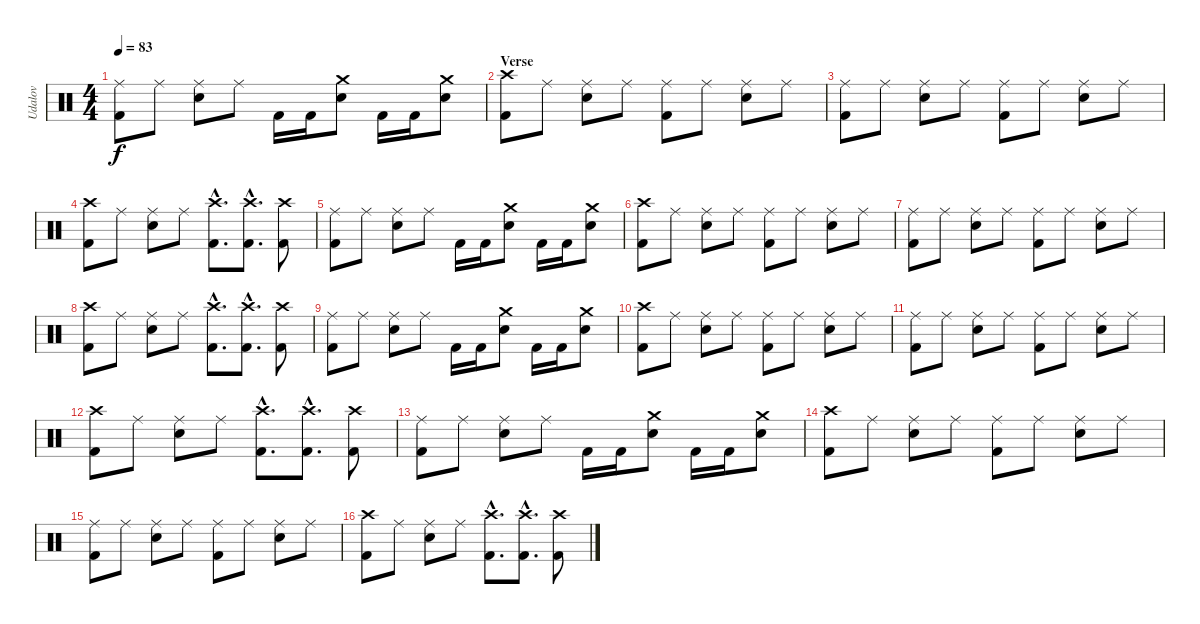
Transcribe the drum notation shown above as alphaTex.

\track ("Udalov" "Udalov") {instrument percussion}
\staff {score}
\articulation defaults
\ts (4 4)
\tempo 83
\clef neutral
\ks c
("Kick (hit) 2" "Ride (middle)").8{dy f} "Ride (middle)".8 ("Snare (hit) 2" "Ride (middle)").8 "Ride (middle)".8 "Kick (hit) 2".16 "Kick (hit) 2".16 ("Snare (hit) 2" "Crash medium (hit)").8 "Kick (hit) 2".16 "Kick (hit) 2".16 ("Snare (hit) 2" "Crash medium (hit)").8 |
\section ("" "Verse")
("Kick (hit) 2" "Crash high (hit)").8 "Ride (middle)".8 ("Snare (hit) 2" "Ride (middle)").8 "Ride (middle)".8 ("Kick (hit) 2" "Ride (middle)").8 "Ride (middle)".8 ("Snare (hit) 2" "Ride (middle)").8 "Ride (middle)".8 |
("Kick (hit) 2" "Ride (middle)").8 "Ride (middle)".8 ("Snare (hit) 2" "Ride (middle)").8 "Ride (middle)".8 ("Kick (hit) 2" "Ride (middle)").8 "Ride (middle)".8 ("Snare (hit) 2" "Ride (middle)").8 "Ride (middle)".8 |
("Kick (hit) 2" "Crash high (hit)").8 "Ride (middle)".8 ("Snare (hit) 2" "Ride (middle)").8 "Ride (middle)".8 ("Kick (hit) 2"{hac} "Crash high (hit)"{hac}).8{d} ("Kick (hit) 2"{hac} "Crash high (hit)"{hac}).8{d} ("Kick (hit) 2" "Crash high (hit)").8 |
("Kick (hit) 2" "Ride (middle)").8 "Ride (middle)".8 ("Snare (hit) 2" "Ride (middle)").8 "Ride (middle)".8 "Kick (hit) 2".16 "Kick (hit) 2".16 ("Snare (hit) 2" "Crash medium (hit)").8 "Kick (hit) 2".16 "Kick (hit) 2".16 ("Snare (hit) 2" "Crash medium (hit)").8 |
("Kick (hit) 2" "Crash high (hit)").8 "Ride (middle)".8 ("Snare (hit) 2" "Ride (middle)").8 "Ride (middle)".8 ("Kick (hit) 2" "Ride (middle)").8 "Ride (middle)".8 ("Snare (hit) 2" "Ride (middle)").8 "Ride (middle)".8 |
("Kick (hit) 2" "Ride (middle)").8 "Ride (middle)".8 ("Snare (hit) 2" "Ride (middle)").8 "Ride (middle)".8 ("Kick (hit) 2" "Ride (middle)").8 "Ride (middle)".8 ("Snare (hit) 2" "Ride (middle)").8 "Ride (middle)".8 |
("Kick (hit) 2" "Crash high (hit)").8 "Ride (middle)".8 ("Snare (hit) 2" "Ride (middle)").8 "Ride (middle)".8 ("Kick (hit) 2"{hac} "Crash high (hit)"{hac}).8{d} ("Kick (hit) 2"{hac} "Crash high (hit)"{hac}).8{d} ("Kick (hit) 2" "Crash high (hit)").8 |
("Kick (hit) 2" "Ride (middle)").8 "Ride (middle)".8 ("Snare (hit) 2" "Ride (middle)").8 "Ride (middle)".8 "Kick (hit) 2".16 "Kick (hit) 2".16 ("Snare (hit) 2" "Crash medium (hit)").8 "Kick (hit) 2".16 "Kick (hit) 2".16 ("Snare (hit) 2" "Crash medium (hit)").8 |
("Kick (hit) 2" "Crash high (hit)").8 "Ride (middle)".8 ("Snare (hit) 2" "Ride (middle)").8 "Ride (middle)".8 ("Kick (hit) 2" "Ride (middle)").8 "Ride (middle)".8 ("Snare (hit) 2" "Ride (middle)").8 "Ride (middle)".8 |
("Kick (hit) 2" "Ride (middle)").8 "Ride (middle)".8 ("Snare (hit) 2" "Ride (middle)").8 "Ride (middle)".8 ("Kick (hit) 2" "Ride (middle)").8 "Ride (middle)".8 ("Snare (hit) 2" "Ride (middle)").8 "Ride (middle)".8 |
("Kick (hit) 2" "Crash high (hit)").8 "Ride (middle)".8 ("Snare (hit) 2" "Ride (middle)").8 "Ride (middle)".8 ("Kick (hit) 2"{hac} "Crash high (hit)"{hac}).8{d} ("Kick (hit) 2"{hac} "Crash high (hit)"{hac}).8{d} ("Kick (hit) 2" "Crash high (hit)").8 |
("Kick (hit) 2" "Ride (middle)").8 "Ride (middle)".8 ("Snare (hit) 2" "Ride (middle)").8 "Ride (middle)".8 "Kick (hit) 2".16 "Kick (hit) 2".16 ("Snare (hit) 2" "Crash medium (hit)").8 "Kick (hit) 2".16 "Kick (hit) 2".16 ("Snare (hit) 2" "Crash medium (hit)").8 |
("Kick (hit) 2" "Crash high (hit)").8 "Ride (middle)".8 ("Snare (hit) 2" "Ride (middle)").8 "Ride (middle)".8 ("Kick (hit) 2" "Ride (middle)").8 "Ride (middle)".8 ("Snare (hit) 2" "Ride (middle)").8 "Ride (middle)".8 |
("Kick (hit) 2" "Ride (middle)").8 "Ride (middle)".8 ("Snare (hit) 2" "Ride (middle)").8 "Ride (middle)".8 ("Kick (hit) 2" "Ride (middle)").8 "Ride (middle)".8 ("Snare (hit) 2" "Ride (middle)").8 "Ride (middle)".8 |
("Kick (hit) 2" "Crash high (hit)").8 "Ride (middle)".8 ("Snare (hit) 2" "Ride (middle)").8 "Ride (middle)".8 ("Kick (hit) 2"{hac} "Crash high (hit)"{hac}).8{d} ("Kick (hit) 2"{hac} "Crash high (hit)"{hac}).8{d} ("Kick (hit) 2" "Crash high (hit)").8
